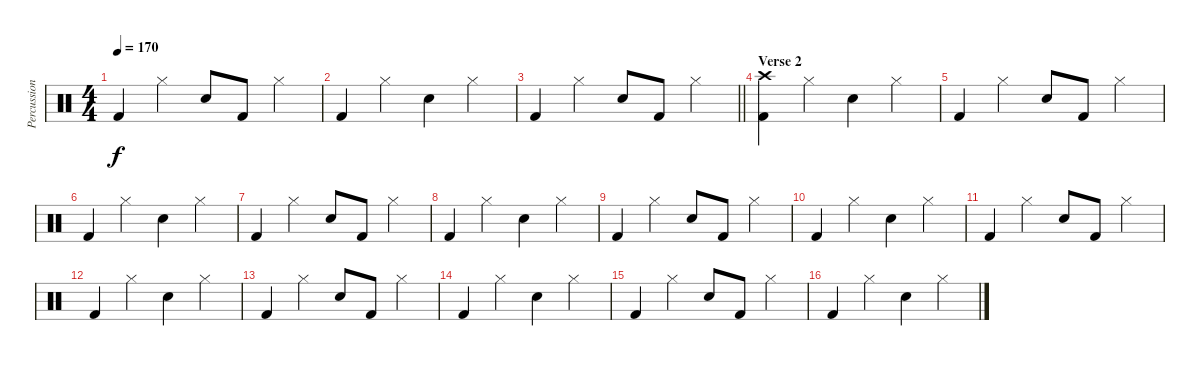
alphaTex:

\track ("Percussion" "Percussion") {instrument percussion}
\staff {score}
\articulation defaults
\ts (4 4)
\tempo 170
\clef neutral
\ks c "Kick (hit) 2".4{dy f} "Hi-Hat (closed)".4 "Snare (hit) 2".8 "Kick (hit) 2".8 "Hi-Hat (closed)".4
|
"Kick (hit) 2".4 "Hi-Hat (closed)".4 "Snare (hit) 2".4 "Hi-Hat (closed)".4 |
\barLineRight lightlight "Kick (hit) 2".4 "Hi-Hat (closed)".4 "Snare (hit) 2".8 "Kick (hit) 2".8 "Hi-Hat (closed)".4
|
\section ("" "Verse 2")
("Crash high (hit)" "Kick (hit) 2").4 "Hi-Hat (closed)".4 "Snare (hit) 2".4 "Hi-Hat (closed)".4 |
"Kick (hit) 2".4 "Hi-Hat (closed)".4 "Snare (hit) 2".8 "Kick (hit) 2".8 "Hi-Hat (closed)".4 |
"Kick (hit) 2".4 "Hi-Hat (closed)".4 "Snare (hit) 2".4 "Hi-Hat (closed)".4 |
"Kick (hit) 2".4 "Hi-Hat (closed)".4 "Snare (hit) 2".8 "Kick (hit) 2".8 "Hi-Hat (closed)".4 |
"Kick (hit) 2".4 "Hi-Hat (closed)".4 "Snare (hit) 2".4 "Hi-Hat (closed)".4 |
"Kick (hit) 2".4 "Hi-Hat (closed)".4 "Snare (hit) 2".8 "Kick (hit) 2".8 "Hi-Hat (closed)".4 |
"Kick (hit) 2".4 "Hi-Hat (closed)".4 "Snare (hit) 2".4 "Hi-Hat (closed)".4 |
"Kick (hit) 2".4 "Hi-Hat (closed)".4 "Snare (hit) 2".8 "Kick (hit) 2".8 "Hi-Hat (closed)".4 |
"Kick (hit) 2".4 "Hi-Hat (closed)".4 "Snare (hit) 2".4 "Hi-Hat (closed)".4 |
"Kick (hit) 2".4 "Hi-Hat (closed)".4 "Snare (hit) 2".8 "Kick (hit) 2".8 "Hi-Hat (closed)".4 |
"Kick (hit) 2".4 "Hi-Hat (closed)".4 "Snare (hit) 2".4 "Hi-Hat (closed)".4 |
"Kick (hit) 2".4 "Hi-Hat (closed)".4 "Snare (hit) 2".8 "Kick (hit) 2".8 "Hi-Hat (closed)".4 |
"Kick (hit) 2".4 "Hi-Hat (closed)".4 "Snare (hit) 2".4 "Hi-Hat (closed)".4
